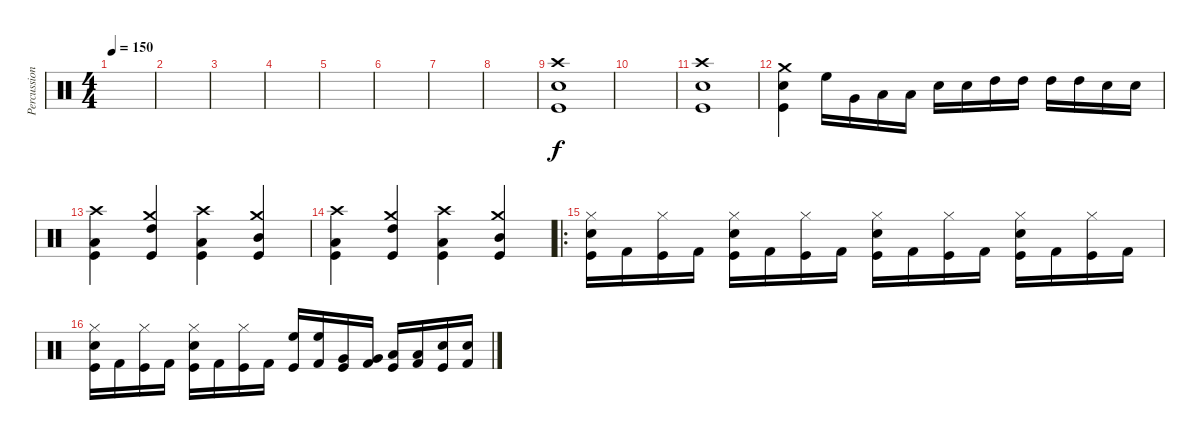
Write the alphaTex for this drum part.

\track ("Percussion" "Percussion") {instrument percussion}
\staff {score}
\articulation defaults
\ts (4 4)
\tempo 150
\clef neutral
\ks c
|
|
|
|
|
|
|
|
("Crash high (hit)" "Electric Snare (hit)" "Kick (hit)").1 |
|
("Crash high (hit)" "Electric Snare (hit)" "Kick (hit)").1 |
("Crash medium (hit)" "Electric Snare (hit)" "Kick (hit)").4 "High Floor Tom (hit)".16 "Very Low Tom (hit)".16 "Low Tom (hit)".16 "Low Floor Tom (hit)".16 "Electric Snare (hit)".16 "Electric Snare (hit)".16 "High Tom (hit)".16 "High Tom (hit)".16 "High Tom (hit)".16 "High Tom (hit)".16 "Electric Snare (hit)".16 "Electric Snare (hit)".16 |
("Crash high (hit)" "Low Tom (hit)" "Kick (hit)").4 ("Crash medium (hit)" "High Tom (hit)" "Kick (hit)").4 ("Crash high (hit)" "Low Floor Tom (hit)" "Kick (hit)").4 ("Crash medium (hit)" "Mid Tom (hit)" "Kick (hit)").4 |
("Crash high (hit)" "Low Tom (hit)" "Kick (hit)").4 ("Crash medium (hit)" "High Tom (hit)" "Kick (hit)").4 ("Crash high (hit)" "Low Floor Tom (hit)" "Kick (hit)").4 ("Crash medium (hit)" "Mid Tom (hit)" "Kick (hit)").4 |
\ro
("Hi-Hat (closed)" "Electric Snare (hit)" "Kick (hit)").16 "Kick (hit) 2".16 ("Hi-Hat (closed)" "Kick (hit)").16 "Kick (hit) 2".16 ("Hi-Hat (closed)" "Electric Snare (hit)" "Kick (hit)").16 "Kick (hit) 2".16 ("Hi-Hat (closed)" "Kick (hit)").16 "Kick (hit) 2".16 ("Hi-Hat (closed)" "Electric Snare (hit)" "Kick (hit)").16 "Kick (hit) 2".16 ("Hi-Hat (closed)" "Kick (hit)").16 "Kick (hit) 2".16 ("Hi-Hat (closed)" "Electric Snare (hit)" "Kick (hit)").16 "Kick (hit) 2".16 ("Hi-Hat (closed)" "Kick (hit)").16 "Kick (hit) 2".16 |
("Hi-Hat (closed)" "Electric Snare (hit)" "Kick (hit)").16 "Kick (hit) 2".16 ("Hi-Hat (closed)" "Kick (hit)").16 "Kick (hit) 2".16 ("Hi-Hat (closed)" "Electric Snare (hit)" "Kick (hit)").16 "Kick (hit) 2".16 ("Hi-Hat (closed)" "Kick (hit)").16 "Kick (hit) 2".16 ("High Floor Tom (hit)" "Kick (hit)").16 ("High Floor Tom (hit)" "Kick (hit) 2").16 ("Very Low Tom (hit)" "Kick (hit)").16 ("Very Low Tom (hit)" "Kick (hit) 2").16 ("Low Tom (hit)" "Kick (hit)").16 ("Low Tom (hit)" "Kick (hit) 2").16 ("Electric Snare (hit)" "Kick (hit)").16 ("Electric Snare (hit)" "Kick (hit) 2").16
